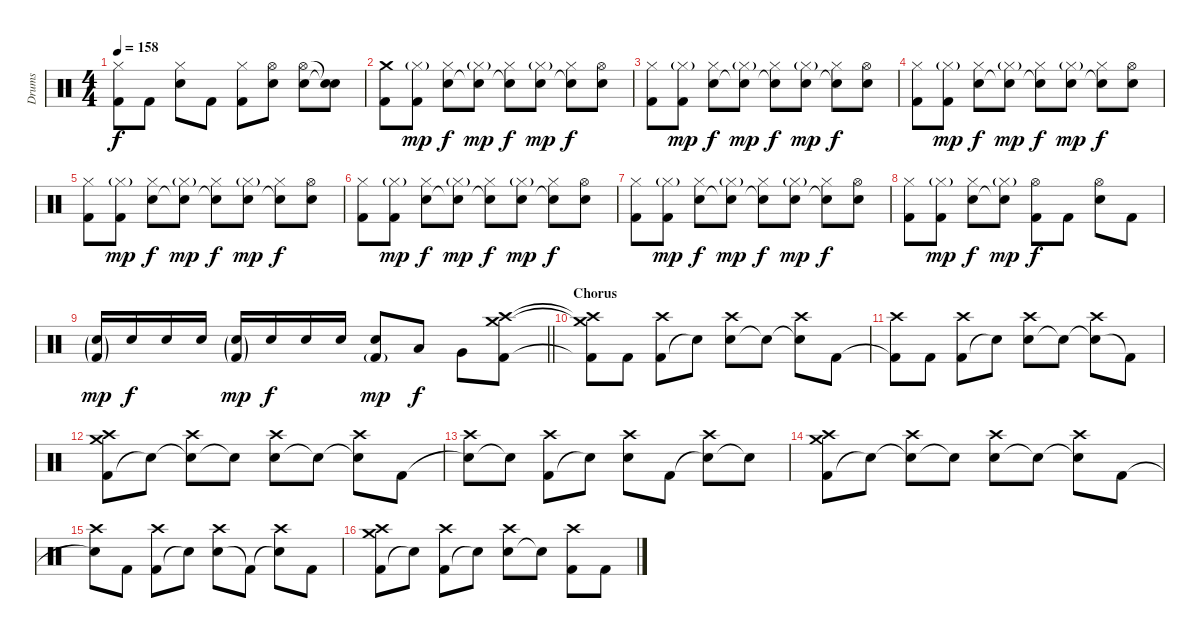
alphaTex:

\track ("Drums" "Drums") {instrument percussion}
\staff {score}
\articulation defaults
\ts (4 4)
\tempo 158
\clef neutral
\ks c
("Kick (hit) 2" "Hi-Hat (closed)").8{dy f} "Kick (hit) 2".8 ("Electric Snare (hit)" "Hi-Hat (closed)").8 "Kick (hit) 2".8 ("Kick (hit) 2" "Hi-Hat (closed)").8 ("Electric Snare (hit)" "Hi-Hat (open)").8 ("Electric Snare (hit)" "Hi-Hat (open)").8 ("Snare (hit)"{t} "Snare (hit)"{t}).8 |
("Kick (hit) 2" "Crash medium (hit)").8 ("Kick (hit) 2" "Hi-Hat (closed)"{g}).8{dy mp} ("Electric Snare (hit)" "Hi-Hat (closed)").8{dy f} ("Snare (hit)"{t} "Hi-Hat (closed)"{g}).8{dy mp} ("Snare (hit)"{t} "Hi-Hat (closed)").8{dy f} ("Electric Snare (hit)" "Hi-Hat (closed)"{g}).8{dy mp} ("Snare (hit)"{t} "Hi-Hat (closed)").8{dy f} ("Electric Snare (hit)" "Hi-Hat (open)").8 |
("Kick (hit) 2" "Hi-Hat (closed)").8 ("Kick (hit) 2" "Hi-Hat (closed)"{g}).8{dy mp} ("Electric Snare (hit)" "Hi-Hat (closed)").8{dy f} ("Snare (hit)"{t} "Hi-Hat (closed)"{g}).8{dy mp} ("Snare (hit)"{t} "Hi-Hat (closed)").8{dy f} ("Electric Snare (hit)" "Hi-Hat (closed)"{g}).8{dy mp} ("Snare (hit)"{t} "Hi-Hat (closed)").8{dy f} ("Electric Snare (hit)" "Hi-Hat (open)").8 |
("Kick (hit) 2" "Hi-Hat (closed)").8 ("Kick (hit) 2" "Hi-Hat (closed)"{g}).8{dy mp} ("Electric Snare (hit)" "Hi-Hat (closed)").8{dy f} ("Snare (hit)"{t} "Hi-Hat (closed)"{g}).8{dy mp} ("Snare (hit)"{t} "Hi-Hat (closed)").8{dy f} ("Electric Snare (hit)" "Hi-Hat (closed)"{g}).8{dy mp} ("Snare (hit)"{t} "Hi-Hat (closed)").8{dy f} ("Electric Snare (hit)" "Hi-Hat (open)").8 |
("Kick (hit) 2" "Hi-Hat (closed)").8 ("Kick (hit) 2" "Hi-Hat (closed)"{g}).8{dy mp} ("Electric Snare (hit)" "Hi-Hat (closed)").8{dy f} ("Snare (hit)"{t} "Hi-Hat (closed)"{g}).8{dy mp} ("Snare (hit)"{t} "Hi-Hat (closed)").8{dy f} ("Electric Snare (hit)" "Hi-Hat (closed)"{g}).8{dy mp} ("Snare (hit)"{t} "Hi-Hat (closed)").8{dy f} ("Electric Snare (hit)" "Hi-Hat (open)").8 |
("Kick (hit) 2" "Hi-Hat (closed)").8 ("Kick (hit) 2" "Hi-Hat (closed)"{g}).8{dy mp} ("Electric Snare (hit)" "Hi-Hat (closed)").8{dy f} ("Snare (hit)"{t} "Hi-Hat (closed)"{g}).8{dy mp} ("Snare (hit)"{t} "Hi-Hat (closed)").8{dy f} ("Electric Snare (hit)" "Hi-Hat (closed)"{g}).8{dy mp} ("Snare (hit)"{t} "Hi-Hat (closed)").8{dy f} ("Electric Snare (hit)" "Hi-Hat (open)").8 |
("Kick (hit) 2" "Hi-Hat (closed)").8 ("Kick (hit) 2" "Hi-Hat (closed)"{g}).8{dy mp} ("Electric Snare (hit)" "Hi-Hat (closed)").8{dy f} ("Snare (hit)"{t} "Hi-Hat (closed)"{g}).8{dy mp} ("Snare (hit)"{t} "Hi-Hat (closed)").8{dy f} ("Electric Snare (hit)" "Hi-Hat (closed)"{g}).8{dy mp} ("Snare (hit)"{t} "Hi-Hat (closed)").8{dy f} ("Electric Snare (hit)" "Hi-Hat (open)").8 |
("Kick (hit) 2" "Hi-Hat (closed)").8 ("Kick (hit) 2" "Hi-Hat (closed)"{g}).8{dy mp} ("Electric Snare (hit)" "Hi-Hat (closed)").8{dy f} ("Snare (hit)"{t} "Hi-Hat (closed)"{g}).8{dy mp} ("Kick (hit) 2" "Hi-Hat (open)").8{dy f} "Kick (hit) 2".8 ("Electric Snare (hit)" "Hi-Hat (open)").8 "Kick (hit) 2".8 |
\barLineRight lightlight
("Electric Snare (hit)"{g} "Kick (hit) 2"{g}).16{dy mp} "Electric Snare (hit)".16{dy f} "Electric Snare (hit)".16 "Electric Snare (hit)".16 ("Electric Snare (hit)"{g} "Kick (hit) 2"{g}).16{dy mp} "Electric Snare (hit)".16{dy f} "Electric Snare (hit)".16 "Electric Snare (hit)".16 ("Electric Snare (hit)" "Kick (hit) 2"{g}).8{dy mp} "Low Tom (hit)".8{dy f} "Very Low Tom (hit)".8 ("Kick (hit) 2" "Crash medium (hit)" "Crash high (hit)").8 |
\section ("" "Chorus")
("Kick (hit) 2"{t} "Crash medium (hit)"{t} "Crash high (hit)"{t}).8 "Kick (hit) 2".8 ("Kick (hit) 2" "Crash high (hit)").8 "Snare (hit)"{t}.8 ("Electric Snare (hit)" "Crash high (hit)").8 "Snare (hit)"{t}.8 ("Snare (hit)"{t} "Crash high (hit)").8 "Kick (hit) 2".8 |
("Kick (hit) 2"{t} "Crash high (hit)").8 "Kick (hit) 2".8 ("Kick (hit) 2" "Crash high (hit)").8 "Snare (hit)"{t}.8 ("Electric Snare (hit)" "Crash high (hit)").8 "Snare (hit)"{t}.8 ("Snare (hit)"{t} "Crash high (hit)").8 "Kick (hit) 2"{t}.8 |
("Kick (hit) 2" "Crash medium (hit)" "Crash high (hit)").8 "Snare (hit)"{t}.8 ("Snare (hit)"{t} "Crash high (hit)").8 "Snare (hit)"{t}.8 ("Electric Snare (hit)" "Crash high (hit)").8 "Snare (hit)"{t}.8 ("Snare (hit)"{t} "Crash high (hit)").8 "Kick (hit) 2".8 |
("Snare (hit)"{t} "Crash high (hit)").8 "Snare (hit)"{t}.8 ("Kick (hit) 2" "Crash high (hit)").8 "Snare (hit)"{t}.8 ("Electric Snare (hit)" "Crash high (hit)").8 "Kick (hit) 2".8 ("Snare (hit)"{t} "Crash high (hit)").8 "Snare (hit)"{t}.8 |
("Kick (hit) 2" "Crash medium (hit)" "Crash high (hit)").8 "Snare (hit)"{t}.8 ("Snare (hit)"{t} "Crash high (hit)").8 "Snare (hit)"{t}.8 ("Electric Snare (hit)" "Crash high (hit)").8 "Snare (hit)"{t}.8 ("Snare (hit)"{t} "Crash high (hit)").8 "Kick (hit) 2".8 |
("Snare (hit)"{t} "Crash high (hit)").8 "Kick (hit) 2".8 ("Kick (hit) 2" "Crash high (hit)").8 "Snare (hit)"{t}.8 ("Electric Snare (hit)" "Crash high (hit)").8 "Kick (hit) 2"{t}.8 ("Snare (hit)"{t} "Crash high (hit)").8 "Kick (hit) 2".8 |
("Kick (hit) 2" "Crash medium (hit)" "Crash high (hit)").8 "Snare (hit)"{t}.8 ("Kick (hit) 2" "Crash high (hit)").8 "Snare (hit)"{t}.8 ("Electric Snare (hit)" "Crash high (hit)").8 "Snare (hit)"{t}.8 ("Kick (hit) 2" "Crash high (hit)").8 "Kick (hit) 2".8
